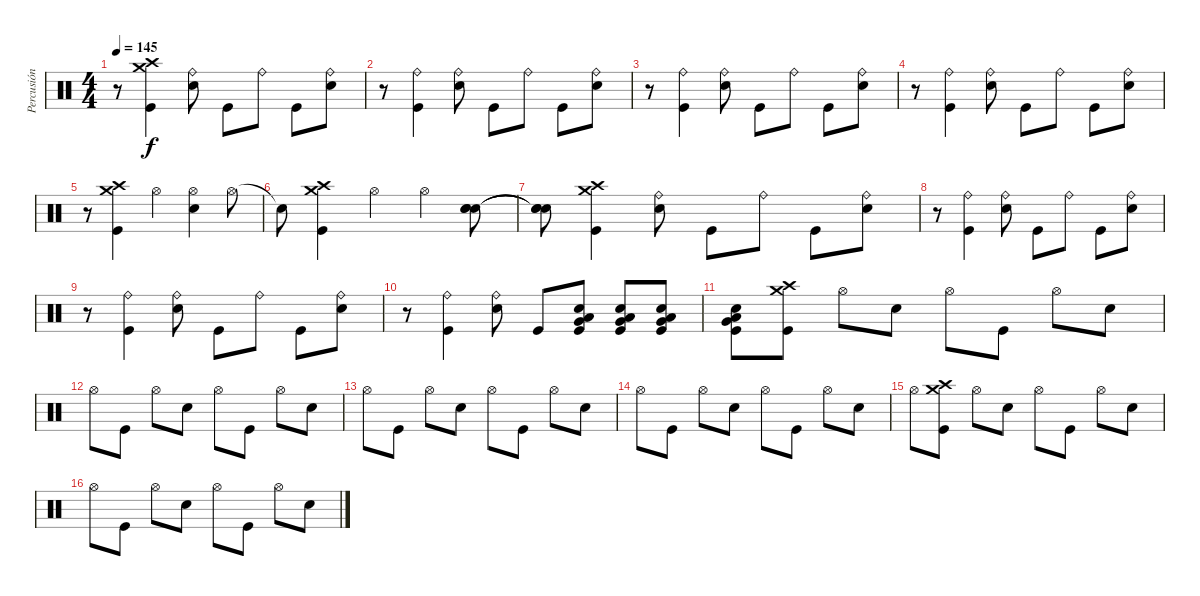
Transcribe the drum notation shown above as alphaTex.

\track ("Percusión" "Percusión") {instrument percussion}
\staff {score}
\articulation defaults
\ts (4 4)
\tempo 145
\clef neutral
\ks c
r.8{dy f} ("Crash medium (hit)" "Crash high (hit)" "Kick (hit)").4 ("Ride (bell)" "Snare (hit) 2").8 "Kick (hit)".8 "Ride (bell)".8 "Kick (hit)".8 ("Ride (bell)" "Snare (hit) 2").8 |
r.8 ("Ride (bell)" "Kick (hit)").4 ("Ride (bell)" "Snare (hit) 2").8 "Kick (hit)".8 "Ride (bell)".8 "Kick (hit)".8 ("Ride (bell)" "Snare (hit) 2").8 |
r.8 ("Ride (bell)" "Kick (hit)").4 ("Ride (bell)" "Snare (hit) 2").8 "Kick (hit)".8 "Ride (bell)".8 "Kick (hit)".8 ("Ride (bell)" "Snare (hit) 2").8 |
r.8 ("Ride (bell)" "Kick (hit)").4 ("Ride (bell)" "Snare (hit) 2").8 "Kick (hit)".8 "Ride (bell)".8 "Kick (hit)".8 ("Ride (bell)" "Snare (hit) 2").8 |
r.8 ("Crash high (hit)" "Crash medium (hit)" "Kick (hit)").4 "Hi-Hat (open)".4 ("Hi-Hat (open)" "Snare (hit) 2").4 "Hi-Hat (open)".8 |
"Snare (hit)"{t}.8 ("Crash high (hit)" "Crash medium (hit)" "Kick (hit)").4 "Hi-Hat (open)".4 "Hi-Hat (open)".4 ("Snare (hit) 2" "Snare (hit) 2" "Snare (hit) 2").8 |
("Snare (hit)"{t} "Snare (hit)"{t} "Snare (hit)"{t}).8 ("Crash medium (hit)" "Crash high (hit)" "Kick (hit)").4 ("Ride (bell)" "Snare (hit) 2").8 "Kick (hit)".8 "Ride (bell)".8 "Kick (hit)".8 ("Ride (bell)" "Snare (hit) 2").8 |
r.8 ("Ride (bell)" "Kick (hit)").4 ("Ride (bell)" "Snare (hit) 2").8 "Kick (hit)".8 "Ride (bell)".8 "Kick (hit)".8 ("Ride (bell)" "Snare (hit) 2").8 |
r.8 ("Ride (bell)" "Kick (hit)").4 ("Ride (bell)" "Snare (hit) 2").8 "Kick (hit)".8 "Ride (bell)".8 "Kick (hit)".8 ("Ride (bell)" "Snare (hit) 2").8 |
r.8 ("Ride (bell)" "Kick (hit)").4 ("Ride (bell)" "Snare (hit) 2").8 "Kick (hit)".8 ("Very Low Tom (hit)" "Low Tom (hit)" "Snare (hit) 2" "Kick (hit)").8 ("Very Low Tom (hit)" "Low Tom (hit)" "Snare (hit) 2" "Kick (hit)").8 ("Very Low Tom (hit)" "Low Tom (hit)" "Snare (hit) 2" "Kick (hit)").8 |
("Very Low Tom (hit)" "Low Tom (hit)" "Snare (hit) 2" "Kick (hit)").8 ("Crash medium (hit)" "Crash high (hit)" "Kick (hit)").8 "Hi-Hat (open)".8 "Snare (hit) 2".8 "Hi-Hat (open)".8 "Kick (hit)".8 "Hi-Hat (open)".8 "Snare (hit) 2".8 |
"Hi-Hat (open)".8 "Kick (hit)".8 "Hi-Hat (open)".8 "Snare (hit) 2".8 "Hi-Hat (open)".8 "Kick (hit)".8 "Hi-Hat (open)".8 "Snare (hit) 2".8 |
"Hi-Hat (open)".8 "Kick (hit)".8 "Hi-Hat (open)".8 "Snare (hit) 2".8 "Hi-Hat (open)".8 "Kick (hit)".8 "Hi-Hat (open)".8 "Snare (hit) 2".8 |
"Hi-Hat (open)".8 "Kick (hit)".8 "Hi-Hat (open)".8 "Snare (hit) 2".8 "Hi-Hat (open)".8 "Kick (hit)".8 "Hi-Hat (open)".8 "Snare (hit) 2".8 |
"Hi-Hat (open)".8 ("Crash medium (hit)" "Crash high (hit)" "Kick (hit)").8 "Hi-Hat (open)".8 "Snare (hit) 2".8 "Hi-Hat (open)".8 "Kick (hit)".8 "Hi-Hat (open)".8 "Snare (hit) 2".8 |
"Hi-Hat (open)".8 "Kick (hit)".8 "Hi-Hat (open)".8 "Snare (hit) 2".8 "Hi-Hat (open)".8 "Kick (hit)".8 "Hi-Hat (open)".8 "Snare (hit) 2".8
